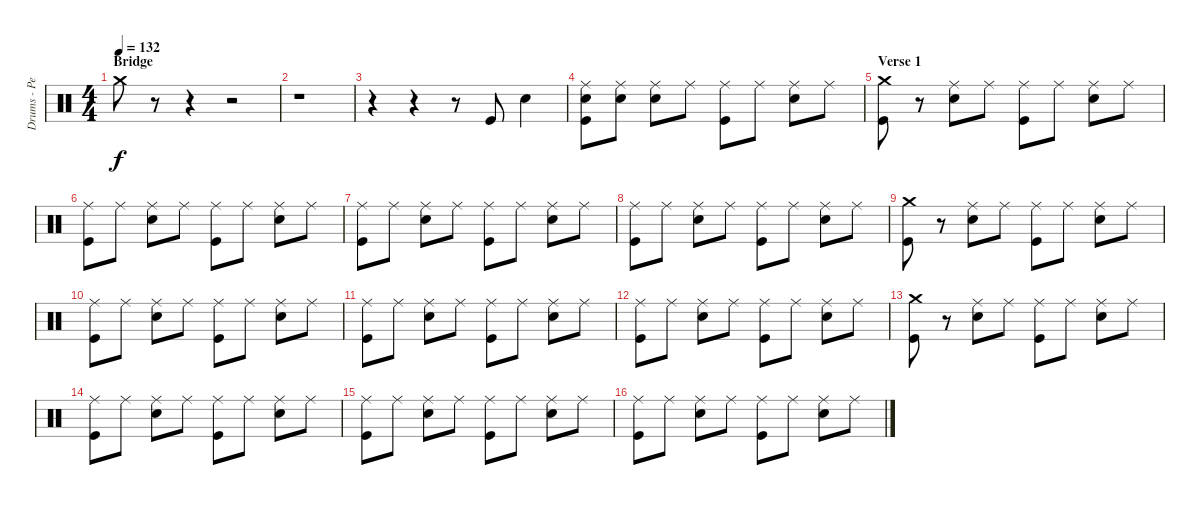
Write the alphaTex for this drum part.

\track ("Drums - Pete Gill" "Drums - Pe") {instrument percussion}
\staff {score}
\articulation defaults
\ts (4 4)
\section ("" "Bridge")
\tempo 132
\clef neutral
\ks c "Crash medium (hit)".8{dy f}
r.8 r.4 r.2 |
r.1 |
r.4 r.4 r.8 "Kick (hit)".8 "Snare (hit) 2".4 |
("Ride (middle)" "Snare (hit) 2" "Kick (hit)").8 ("Ride (middle)" "Snare (hit) 2").8 ("Ride (middle)" "Snare (hit) 2").8 "Ride (middle)".8 ("Ride (middle)" "Kick (hit)").8 "Ride (middle)".8 ("Ride (middle)" "Snare (hit) 2").8 "Ride (middle)".8 |
\section ("" "Verse 1")
("Crash medium (hit)" "Kick (hit)").8 r.8 ("Ride (middle)" "Snare (hit) 2").8 "Ride (middle)".8 ("Ride (middle)" "Kick (hit)").8 "Ride (middle)".8 ("Ride (middle)" "Snare (hit) 2").8 "Ride (middle)".8 |
("Ride (middle)" "Kick (hit)").8 "Ride (middle)".8 ("Ride (middle)" "Snare (hit) 2").8 "Ride (middle)".8 ("Ride (middle)" "Kick (hit)").8 "Ride (middle)".8 ("Ride (middle)" "Snare (hit) 2").8 "Ride (middle)".8 |
("Ride (middle)" "Kick (hit)").8 "Ride (middle)".8 ("Ride (middle)" "Snare (hit) 2").8 "Ride (middle)".8 ("Ride (middle)" "Kick (hit)").8 "Ride (middle)".8 ("Ride (middle)" "Snare (hit) 2").8 "Ride (middle)".8 |
("Ride (middle)" "Kick (hit)").8 "Ride (middle)".8 ("Ride (middle)" "Snare (hit) 2").8 "Ride (middle)".8 ("Ride (middle)" "Kick (hit)").8 "Ride (middle)".8 ("Ride (middle)" "Snare (hit) 2").8 "Ride (middle)".8 |
("Crash medium (hit)" "Kick (hit)").8 r.8 ("Ride (middle)" "Snare (hit) 2").8 "Ride (middle)".8 ("Ride (middle)" "Kick (hit)").8 "Ride (middle)".8 ("Ride (middle)" "Snare (hit) 2").8 "Ride (middle)".8 |
("Ride (middle)" "Kick (hit)").8 "Ride (middle)".8 ("Ride (middle)" "Snare (hit) 2").8 "Ride (middle)".8 ("Ride (middle)" "Kick (hit)").8 "Ride (middle)".8 ("Ride (middle)" "Snare (hit) 2").8 "Ride (middle)".8 |
("Ride (middle)" "Kick (hit)").8 "Ride (middle)".8 ("Ride (middle)" "Snare (hit) 2").8 "Ride (middle)".8 ("Ride (middle)" "Kick (hit)").8 "Ride (middle)".8 ("Ride (middle)" "Snare (hit) 2").8 "Ride (middle)".8 |
("Ride (middle)" "Kick (hit)").8 "Ride (middle)".8 ("Ride (middle)" "Snare (hit) 2").8 "Ride (middle)".8 ("Ride (middle)" "Kick (hit)").8 "Ride (middle)".8 ("Ride (middle)" "Snare (hit) 2").8 "Ride (middle)".8 |
("Crash medium (hit)" "Kick (hit)").8 r.8 ("Ride (middle)" "Snare (hit) 2").8 "Ride (middle)".8 ("Ride (middle)" "Kick (hit)").8 "Ride (middle)".8 ("Ride (middle)" "Snare (hit) 2").8 "Ride (middle)".8 |
("Ride (middle)" "Kick (hit)").8 "Ride (middle)".8 ("Ride (middle)" "Snare (hit) 2").8 "Ride (middle)".8 ("Ride (middle)" "Kick (hit)").8 "Ride (middle)".8 ("Ride (middle)" "Snare (hit) 2").8 "Ride (middle)".8 |
("Ride (middle)" "Kick (hit)").8 "Ride (middle)".8 ("Ride (middle)" "Snare (hit) 2").8 "Ride (middle)".8 ("Ride (middle)" "Kick (hit)").8 "Ride (middle)".8 ("Ride (middle)" "Snare (hit) 2").8 "Ride (middle)".8 |
("Ride (middle)" "Kick (hit)").8 "Ride (middle)".8 ("Ride (middle)" "Snare (hit) 2").8 "Ride (middle)".8 ("Ride (middle)" "Kick (hit)").8 "Ride (middle)".8 ("Ride (middle)" "Snare (hit) 2").8 "Ride (middle)".8
